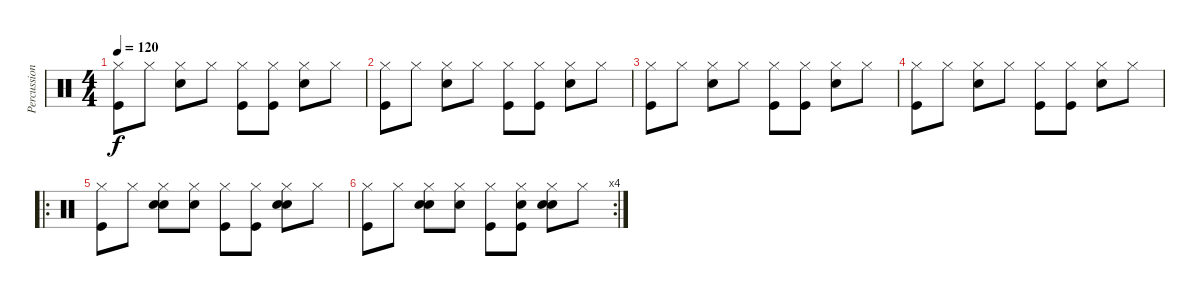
\track ("Percussion" "Percussion") {instrument percussion}
\staff {score}
\articulation defaults
\ts (4 4)
\tempo 120
\clef neutral
\ks c
("Hi-Hat (closed)" "Kick (hit)").8{dy f} "Hi-Hat (closed)".8 ("Hi-Hat (closed)" "Snare (hit) 2").8 "Hi-Hat (closed)".8 ("Hi-Hat (closed)" "Kick (hit)").8 ("Hi-Hat (closed)" "Kick (hit)").8 ("Hi-Hat (closed)" "Snare (hit) 2").8 "Hi-Hat (closed)".8 |
("Hi-Hat (closed)" "Kick (hit)").8 "Hi-Hat (closed)".8 ("Hi-Hat (closed)" "Snare (hit) 2").8 "Hi-Hat (closed)".8 ("Hi-Hat (closed)" "Kick (hit)").8 ("Hi-Hat (closed)" "Kick (hit)").8 ("Hi-Hat (closed)" "Snare (hit) 2").8 "Hi-Hat (closed)".8 |
("Hi-Hat (closed)" "Kick (hit)").8 "Hi-Hat (closed)".8 ("Hi-Hat (closed)" "Snare (hit) 2").8 "Hi-Hat (closed)".8 ("Hi-Hat (closed)" "Kick (hit)").8 ("Hi-Hat (closed)" "Kick (hit)").8 ("Hi-Hat (closed)" "Snare (hit) 2").8 "Hi-Hat (closed)".8 |
("Hi-Hat (closed)" "Kick (hit)").8 "Hi-Hat (closed)".8 ("Hi-Hat (closed)" "Snare (hit) 2").8 "Hi-Hat (closed)".8 ("Hi-Hat (closed)" "Kick (hit)").8 ("Hi-Hat (closed)" "Kick (hit)").8 ("Hi-Hat (closed)" "Snare (hit) 2").8 "Hi-Hat (closed)".8 |
\ro
("Hi-Hat (closed)" "Kick (hit)").8 "Hi-Hat (closed)".8 ("Hand Clap (hit)" "Hi-Hat (closed)" "Snare (hit) 2").8 ("Hand Clap (hit)" "Hi-Hat (closed)").8 ("Hi-Hat (closed)" "Kick (hit)").8 ("Hi-Hat (closed)" "Kick (hit)").8 ("Hand Clap (hit)" "Hi-Hat (closed)" "Snare (hit) 2").8 "Hi-Hat (closed)".8 |
\rc 4
("Hi-Hat (closed)" "Kick (hit)").8 "Hi-Hat (closed)".8 ("Hand Clap (hit)" "Hi-Hat (closed)" "Snare (hit) 2").8 ("Hand Clap (hit)" "Hi-Hat (closed)").8 ("Hi-Hat (closed)" "Kick (hit)").8 ("Hand Clap (hit)" "Hi-Hat (closed)" "Kick (hit)").8 ("Hand Clap (hit)" "Hi-Hat (closed)" "Snare (hit) 2").8 "Hi-Hat (closed)".8
